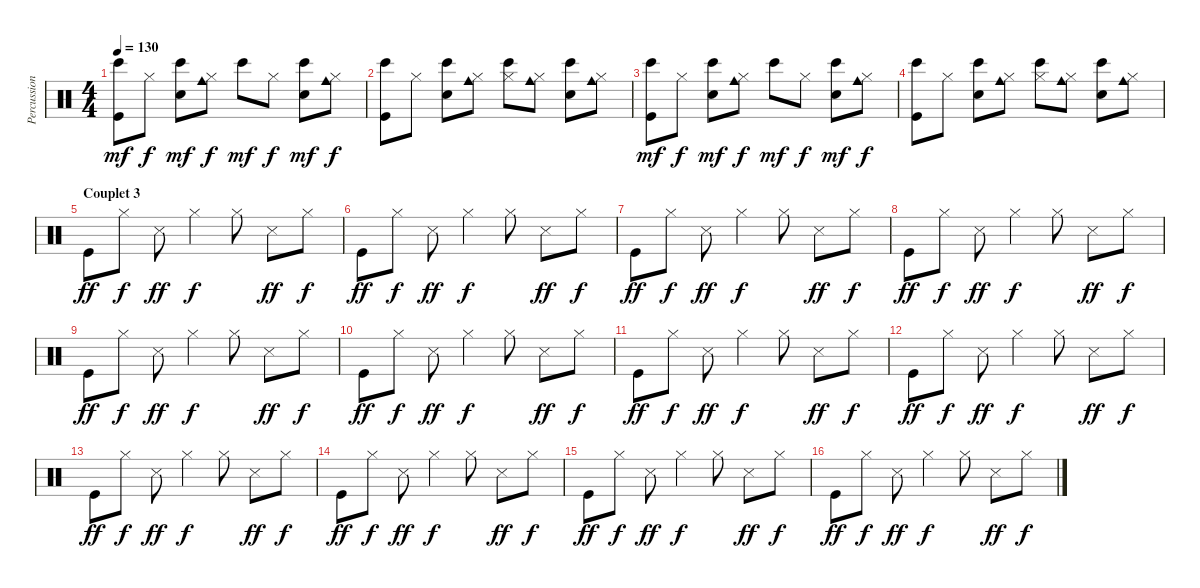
\track ("Percussions" "Percussion") {instrument percussion}
\staff {score}
\articulation defaults
\ts (4 4)
\tempo 130
\clef neutral
\ks c
("Bongo High (hit)" "Kick (hit)").8{dy mf} "Hi-Hat (closed)".8{dy f} ("Bongo High (hit)" "Electric Snare (hit)").8{dy mf} ("Hi-Hat (closed)" "Cowbell medium (hit)").8{dy f} "Bongo High (hit)".8{dy mf} "Hi-Hat (closed)".8{dy f} ("Bongo High (hit)" "Electric Snare (hit)").8{dy mf} ("Hi-Hat (closed)" "Cowbell medium (hit)").8{dy f} |
("Bongo High (hit)" "Kick (hit)").8 "Hi-Hat (closed)".8 ("Bongo High (hit)" "Electric Snare (hit)").8 ("Hi-Hat (closed)" "Cowbell medium (hit)").8 ("Hi-Hat (closed)" "Bongo High (hit)").8 ("Hi-Hat (closed)" "Cowbell medium (hit)").8 ("Bongo High (hit)" "Electric Snare (hit)").8 ("Hi-Hat (closed)" "Cowbell medium (hit)").8 |
("Bongo High (hit)" "Kick (hit)").8{dy mf} "Hi-Hat (closed)".8{dy f} ("Bongo High (hit)" "Electric Snare (hit)").8{dy mf} ("Hi-Hat (closed)" "Cowbell medium (hit)").8{dy f} "Bongo High (hit)".8{dy mf} "Hi-Hat (closed)".8{dy f} ("Bongo High (hit)" "Electric Snare (hit)").8{dy mf} ("Hi-Hat (closed)" "Cowbell medium (hit)").8{dy f} |
("Bongo High (hit)" "Kick (hit)").8 "Hi-Hat (closed)".8 ("Bongo High (hit)" "Electric Snare (hit)").8 ("Hi-Hat (closed)" "Cowbell medium (hit)").8 ("Hi-Hat (closed)" "Bongo High (hit)").8 ("Hi-Hat (closed)" "Cowbell medium (hit)").8 ("Bongo High (hit)" "Electric Snare (hit)").8 ("Hi-Hat (closed)" "Cowbell medium (hit)").8 |
\section ("" "Couplet 3")
"Kick (hit)".8{dy ff} "Hi-Hat (closed)".8{dy f} "Snare (side stick) 3".8{dy ff} "Hi-Hat (closed)".4{dy f} "Hi-Hat (closed)".8 "Snare (side stick) 3".8{dy ff} "Hi-Hat (closed)".8{dy f} |
"Kick (hit)".8{dy ff} "Hi-Hat (closed)".8{dy f} "Snare (side stick) 3".8{dy ff} "Hi-Hat (closed)".4{dy f} "Hi-Hat (closed)".8 "Snare (side stick) 3".8{dy ff} "Hi-Hat (closed)".8{dy f} |
"Kick (hit)".8{dy ff} "Hi-Hat (closed)".8{dy f} "Snare (side stick) 3".8{dy ff} "Hi-Hat (closed)".4{dy f} "Hi-Hat (closed)".8 "Snare (side stick) 3".8{dy ff} "Hi-Hat (closed)".8{dy f} |
"Kick (hit)".8{dy ff} "Hi-Hat (closed)".8{dy f} "Snare (side stick) 3".8{dy ff} "Hi-Hat (closed)".4{dy f} "Hi-Hat (closed)".8 "Snare (side stick) 3".8{dy ff} "Hi-Hat (closed)".8{dy f} |
"Kick (hit)".8{dy ff} "Hi-Hat (closed)".8{dy f} "Snare (side stick) 3".8{dy ff} "Hi-Hat (closed)".4{dy f} "Hi-Hat (closed)".8 "Snare (side stick) 3".8{dy ff} "Hi-Hat (closed)".8{dy f} |
"Kick (hit)".8{dy ff} "Hi-Hat (closed)".8{dy f} "Snare (side stick) 3".8{dy ff} "Hi-Hat (closed)".4{dy f} "Hi-Hat (closed)".8 "Snare (side stick) 3".8{dy ff} "Hi-Hat (closed)".8{dy f} |
"Kick (hit)".8{dy ff} "Hi-Hat (closed)".8{dy f} "Snare (side stick) 3".8{dy ff} "Hi-Hat (closed)".4{dy f} "Hi-Hat (closed)".8 "Snare (side stick) 3".8{dy ff} "Hi-Hat (closed)".8{dy f} |
"Kick (hit)".8{dy ff} "Hi-Hat (closed)".8{dy f} "Snare (side stick) 3".8{dy ff} "Hi-Hat (closed)".4{dy f} "Hi-Hat (closed)".8 "Snare (side stick) 3".8{dy ff} "Hi-Hat (closed)".8{dy f} |
"Kick (hit)".8{dy ff} "Hi-Hat (closed)".8{dy f} "Snare (side stick) 3".8{dy ff} "Hi-Hat (closed)".4{dy f} "Hi-Hat (closed)".8 "Snare (side stick) 3".8{dy ff} "Hi-Hat (closed)".8{dy f} |
"Kick (hit)".8{dy ff} "Hi-Hat (closed)".8{dy f} "Snare (side stick) 3".8{dy ff} "Hi-Hat (closed)".4{dy f} "Hi-Hat (closed)".8 "Snare (side stick) 3".8{dy ff} "Hi-Hat (closed)".8{dy f} |
"Kick (hit)".8{dy ff} "Hi-Hat (closed)".8{dy f} "Snare (side stick) 3".8{dy ff} "Hi-Hat (closed)".4{dy f} "Hi-Hat (closed)".8 "Snare (side stick) 3".8{dy ff} "Hi-Hat (closed)".8{dy f} |
"Kick (hit)".8{dy ff} "Hi-Hat (closed)".8{dy f} "Snare (side stick) 3".8{dy ff} "Hi-Hat (closed)".4{dy f} "Hi-Hat (closed)".8 "Snare (side stick) 3".8{dy ff} "Hi-Hat (closed)".8{dy f}
